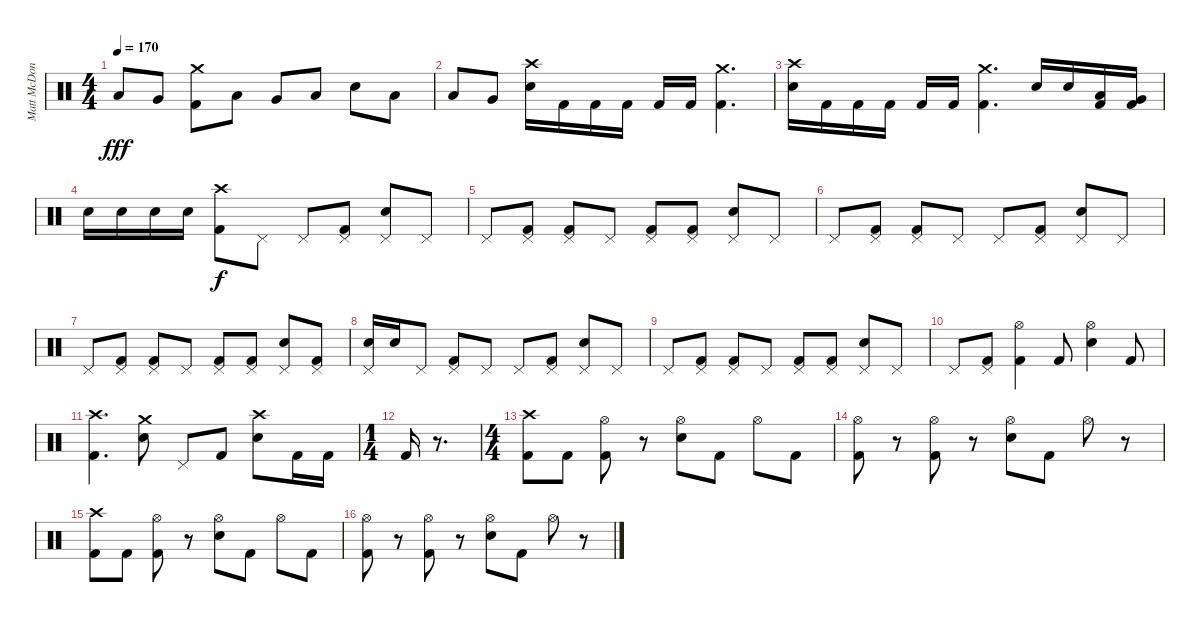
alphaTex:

\track ("Matt McDonough" "Matt McDon") {instrument percussion}
\staff {score}
\articulation defaults
\ts (4 4)
\tempo 170
\clef neutral
\ks c "Low Floor Tom (hit)".8{dy fff} "Very Low Tom (hit)".8
("Crash medium (hit)" "Kick (hit) 2").8 "Low Tom (hit)".8 "Very Low Tom (hit)".8 "Low Floor Tom (hit)".8 "Electric Snare (hit)".8 "Low Tom (hit)".8 |
"Low Floor Tom (hit)".8 "Very Low Tom (hit)".8 ("Crash high (hit)" "Electric Snare (hit)").16 "Kick (hit) 2".16 "Kick (hit) 2".16 "Kick (hit) 2".16 "Kick (hit) 2".16 "Kick (hit) 2".16 ("Crash medium (hit)" "Kick (hit) 2").4{d} |
("Crash high (hit)" "Electric Snare (hit)").16 "Kick (hit) 2".16 "Kick (hit) 2".16 "Kick (hit) 2".16 "Kick (hit) 2".16 "Kick (hit) 2".16 ("Crash medium (hit)" "Kick (hit) 2").4{d} "Electric Snare (hit)".16 "Electric Snare (hit)".16 ("Low Floor Tom (hit)" "Kick (hit) 2").16 ("Very Low Tom (hit)" "Kick (hit) 2").16 |
"Electric Snare (hit)".16 "Electric Snare (hit)".16 "Electric Snare (hit)".16 "Electric Snare (hit)".16 ("Crash high (hit)" "Kick (hit) 2").8{dy f} "Pedal Hi-Hat (hit)".8 "Pedal Hi-Hat (hit)".8 ("Pedal Hi-Hat (hit)" "Kick (hit) 2").8 ("Pedal Hi-Hat (hit)" "Electric Snare (hit)").8 "Pedal Hi-Hat (hit)".8 |
"Pedal Hi-Hat (hit)".8 ("Pedal Hi-Hat (hit)" "Kick (hit) 2").8 ("Pedal Hi-Hat (hit)" "Kick (hit) 2").8 "Pedal Hi-Hat (hit)".8 ("Pedal Hi-Hat (hit)" "Kick (hit) 2").8 ("Pedal Hi-Hat (hit)" "Kick (hit) 2").8 ("Pedal Hi-Hat (hit)" "Electric Snare (hit)").8 "Pedal Hi-Hat (hit)".8 |
"Pedal Hi-Hat (hit)".8 ("Pedal Hi-Hat (hit)" "Kick (hit) 2").8 ("Pedal Hi-Hat (hit)" "Kick (hit) 2").8 "Pedal Hi-Hat (hit)".8 "Pedal Hi-Hat (hit)".8 ("Pedal Hi-Hat (hit)" "Kick (hit) 2").8 ("Pedal Hi-Hat (hit)" "Electric Snare (hit)").8 "Pedal Hi-Hat (hit)".8 |
"Pedal Hi-Hat (hit)".8 ("Pedal Hi-Hat (hit)" "Kick (hit) 2").8 ("Pedal Hi-Hat (hit)" "Kick (hit) 2").8 "Pedal Hi-Hat (hit)".8 ("Pedal Hi-Hat (hit)" "Kick (hit) 2").8 ("Pedal Hi-Hat (hit)" "Kick (hit) 2").8 ("Pedal Hi-Hat (hit)" "Electric Snare (hit)").8 ("Pedal Hi-Hat (hit)" "Kick (hit) 2").8 |
("Pedal Hi-Hat (hit)" "Electric Snare (hit)").16 "Electric Snare (hit)".16 "Pedal Hi-Hat (hit)".8 ("Pedal Hi-Hat (hit)" "Kick (hit) 2").8 "Pedal Hi-Hat (hit)".8 "Pedal Hi-Hat (hit)".8 ("Pedal Hi-Hat (hit)" "Kick (hit) 2").8 ("Pedal Hi-Hat (hit)" "Electric Snare (hit)").8 "Pedal Hi-Hat (hit)".8 |
"Pedal Hi-Hat (hit)".8 ("Pedal Hi-Hat (hit)" "Kick (hit) 2").8 ("Pedal Hi-Hat (hit)" "Kick (hit) 2").8 "Pedal Hi-Hat (hit)".8 ("Pedal Hi-Hat (hit)" "Kick (hit) 2").8 ("Pedal Hi-Hat (hit)" "Kick (hit) 2").8 ("Pedal Hi-Hat (hit)" "Electric Snare (hit)").8 "Pedal Hi-Hat (hit)".8 |
"Pedal Hi-Hat (hit)".8 ("Pedal Hi-Hat (hit)" "Kick (hit) 2").8 ("Hi-Hat (open)" "Kick (hit) 2").4 "Kick (hit) 2".8 ("Hi-Hat (open)" "Electric Snare (hit)").4 "Kick (hit) 2".8 |
("Crash high (hit)" "Kick (hit) 2").4{d} ("Crash medium (hit)" "Electric Snare (hit)").8 "Pedal Hi-Hat (hit)".8 "Kick (hit) 2".8 ("Crash high (hit)" "Electric Snare (hit)").8 "Kick (hit) 2".16 "Kick (hit) 2".16 |
\ts (1 4)
"Kick (hit) 2".16 r.8{d} |
\ts (4 4)
("Crash high (hit)" "Kick (hit) 2").8 "Kick (hit) 2".8 ("Hi-Hat (open)" "Kick (hit) 2").8 r.8 ("Hi-Hat (open)" "Electric Snare (hit)").8 "Kick (hit) 2".8 "Hi-Hat (open)".8 "Kick (hit) 2".8 |
("Hi-Hat (open)" "Kick (hit) 2").8 r.8 ("Hi-Hat (open)" "Kick (hit) 2").8 r.8 ("Hi-Hat (open)" "Electric Snare (hit)").8 "Kick (hit) 2".8 "Hi-Hat (open)".8 r.8 |
("Crash high (hit)" "Kick (hit) 2").8 "Kick (hit) 2".8 ("Hi-Hat (open)" "Kick (hit) 2").8 r.8 ("Hi-Hat (open)" "Electric Snare (hit)").8 "Kick (hit) 2".8 "Hi-Hat (open)".8 "Kick (hit) 2".8 |
("Hi-Hat (open)" "Kick (hit) 2").8 r.8 ("Hi-Hat (open)" "Kick (hit) 2").8 r.8 ("Hi-Hat (open)" "Electric Snare (hit)").8 "Kick (hit) 2".8 "Hi-Hat (open)".8 r.8
